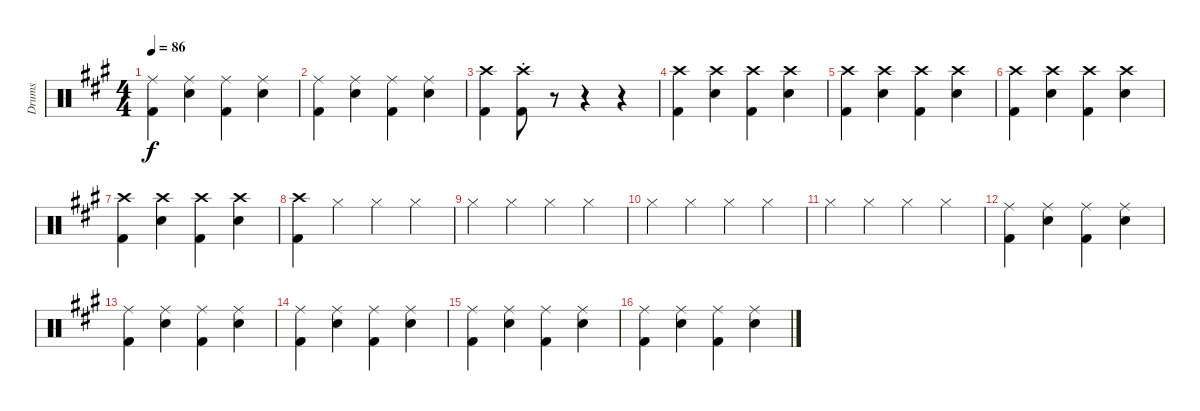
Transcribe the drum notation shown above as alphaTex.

\track ("Drums" "Drums") {instrument percussion}
\staff {score}
\articulation defaults
\ts (4 4)
\tempo 86
\clef neutral
\ks a
("Ride (middle)" "Kick (hit) 2").4{dy f} ("Ride (middle)" "Snare (hit) 2").4 ("Ride (middle)" "Kick (hit) 2").4 ("Ride (middle)" "Snare (hit) 2").4 |
("Ride (middle)" "Kick (hit) 2").4 ("Ride (middle)" "Snare (hit) 2").4 ("Ride (middle)" "Kick (hit) 2").4 ("Ride (middle)" "Snare (hit) 2").4 |
("Crash high (hit)" "Kick (hit) 2").4 ("Crash high (hit)"{st} "Kick (hit) 2").8 r.8 r.4 r.4 |
("Crash high (hit)" "Kick (hit) 2").4 ("Crash high (hit)" "Snare (hit) 2").4 ("Crash high (hit)" "Kick (hit) 2").4 ("Crash high (hit)" "Snare (hit) 2").4 |
("Crash high (hit)" "Kick (hit) 2").4 ("Crash high (hit)" "Snare (hit) 2").4 ("Crash high (hit)" "Kick (hit) 2").4 ("Crash high (hit)" "Snare (hit) 2").4 |
("Crash high (hit)" "Kick (hit) 2").4 ("Crash high (hit)" "Snare (hit) 2").4 ("Crash high (hit)" "Kick (hit) 2").4 ("Crash high (hit)" "Snare (hit) 2").4 |
("Crash high (hit)" "Kick (hit) 2").4 ("Crash high (hit)" "Snare (hit) 2").4 ("Crash high (hit)" "Kick (hit) 2").4 ("Crash high (hit)" "Snare (hit) 2").4 |
("Crash high (hit)" "Kick (hit) 2").4 "Hi-Hat (closed)".4 "Hi-Hat (closed)".4 "Hi-Hat (closed)".4 |
"Hi-Hat (closed)".4 "Hi-Hat (closed)".4 "Hi-Hat (closed)".4 "Hi-Hat (closed)".4 |
"Hi-Hat (closed)".4 "Hi-Hat (closed)".4 "Hi-Hat (closed)".4 "Hi-Hat (closed)".4 |
"Hi-Hat (closed)".4 "Hi-Hat (closed)".4 "Hi-Hat (closed)".4 "Hi-Hat (closed)".4 |
("Ride (middle)" "Kick (hit) 2").4 ("Ride (middle)" "Snare (hit) 2").4 ("Ride (middle)" "Kick (hit) 2").4 ("Ride (middle)" "Snare (hit) 2").4 |
("Ride (middle)" "Kick (hit) 2").4 ("Ride (middle)" "Snare (hit) 2").4 ("Ride (middle)" "Kick (hit) 2").4 ("Ride (middle)" "Snare (hit) 2").4 |
("Ride (middle)" "Kick (hit) 2").4 ("Ride (middle)" "Snare (hit) 2").4 ("Ride (middle)" "Kick (hit) 2").4 ("Ride (middle)" "Snare (hit) 2").4 |
("Ride (middle)" "Kick (hit) 2").4 ("Ride (middle)" "Snare (hit) 2").4 ("Ride (middle)" "Kick (hit) 2").4 ("Ride (middle)" "Snare (hit) 2").4 |
("Ride (middle)" "Kick (hit) 2").4 ("Ride (middle)" "Snare (hit) 2").4 ("Ride (middle)" "Kick (hit) 2").4 ("Ride (middle)" "Snare (hit) 2").4
